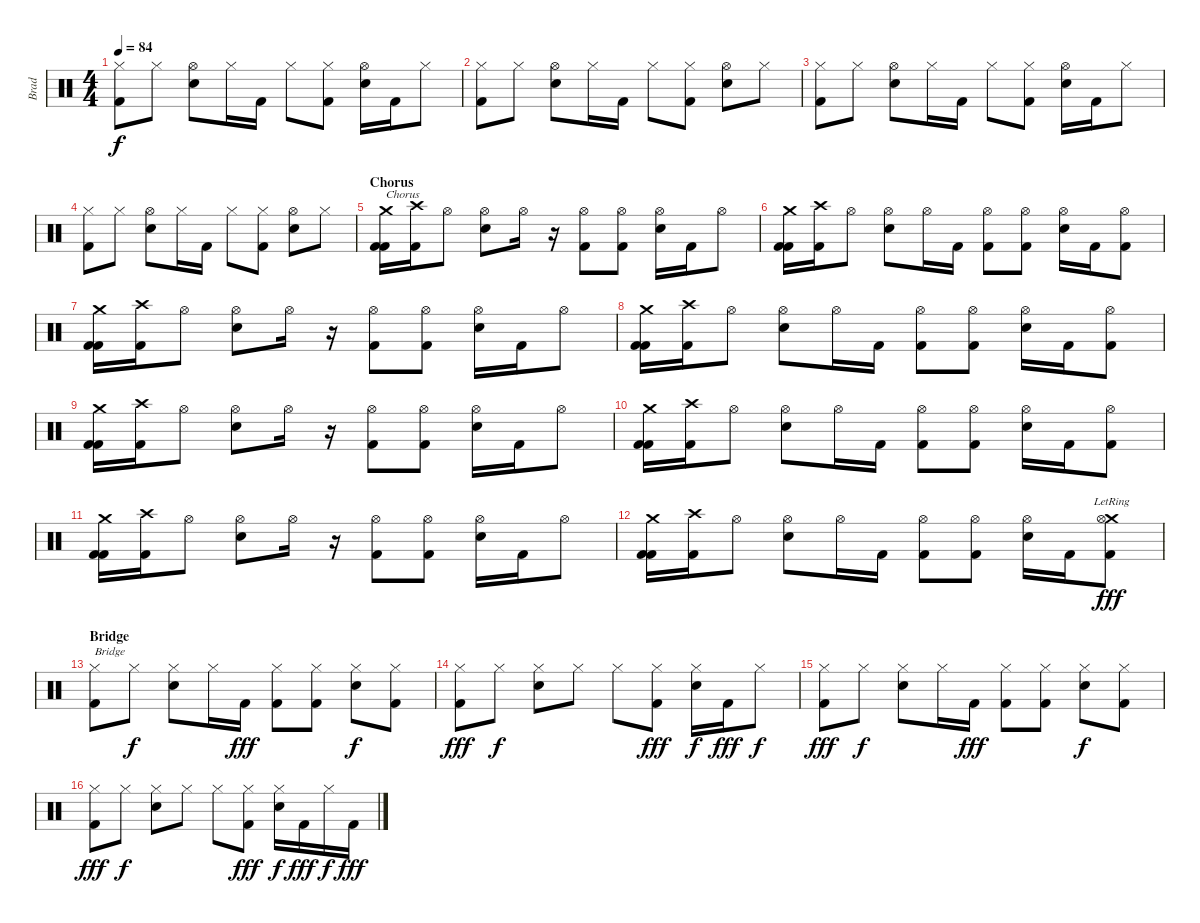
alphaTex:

\track ("Brad" "Brad") {instrument percussion}
\staff {score}
\articulation defaults
\ts (4 4)
\tempo 84
\clef neutral
\ks c
("Hi-Hat (closed)" "Kick (hit) 2").8{dy f} "Hi-Hat (closed)".8 ("Hi-Hat (open)" "Electric Snare (hit)").8 "Hi-Hat (closed)".16 "Kick (hit) 2".16 "Hi-Hat (closed)".8 ("Hi-Hat (closed)" "Kick (hit) 2").8 ("Hi-Hat (open)" "Electric Snare (hit)").16 "Kick (hit) 2".16 "Hi-Hat (closed)".8 |
("Hi-Hat (closed)" "Kick (hit) 2").8 "Hi-Hat (closed)".8 ("Hi-Hat (open)" "Electric Snare (hit)").8 "Hi-Hat (closed)".16 "Kick (hit) 2".16 "Hi-Hat (closed)".8 ("Hi-Hat (closed)" "Kick (hit) 2").8 ("Hi-Hat (open)" "Electric Snare (hit)").8 "Hi-Hat (closed)".8 |
("Hi-Hat (closed)" "Kick (hit) 2").8 "Hi-Hat (closed)".8 ("Hi-Hat (open)" "Electric Snare (hit)").8 "Hi-Hat (closed)".16 "Kick (hit) 2".16 "Hi-Hat (closed)".8 ("Hi-Hat (closed)" "Kick (hit) 2").8 ("Hi-Hat (open)" "Electric Snare (hit)").16 "Kick (hit) 2".16 "Hi-Hat (closed)".8 |
("Hi-Hat (closed)" "Kick (hit) 2").8 "Hi-Hat (closed)".8 ("Hi-Hat (open)" "Electric Snare (hit)").8 "Hi-Hat (closed)".16 "Kick (hit) 2".16 "Hi-Hat (closed)".8 ("Hi-Hat (closed)" "Kick (hit) 2").8 ("Hi-Hat (open)" "Electric Snare (hit)").8 "Hi-Hat (closed)".8 |
\section ("" "Chorus")
("Crash medium (hit)" "Kick (hit) 2" "Kick (hit) 2").16{txt "Chorus"} ("Crash high (hit)" "Kick (hit) 2").16 "Hi-Hat (open)".8 ("Hi-Hat (open)" "Electric Snare (hit)").8 "Hi-Hat (open)".16 r.16 ("Hi-Hat (open)" "Kick (hit) 2").8 ("Hi-Hat (open)" "Kick (hit) 2").8 ("Hi-Hat (open)" "Electric Snare (hit)").16 "Kick (hit) 2".16 "Hi-Hat (open)".8 |
("Crash medium (hit)" "Kick (hit) 2" "Kick (hit) 2").16 ("Crash high (hit)" "Kick (hit) 2").16 "Hi-Hat (open)".8 ("Hi-Hat (open)" "Electric Snare (hit)").8 "Hi-Hat (open)".16 "Kick (hit) 2".16 ("Hi-Hat (open)" "Kick (hit) 2").8 ("Hi-Hat (open)" "Kick (hit) 2").8 ("Hi-Hat (open)" "Electric Snare (hit)").16 "Kick (hit) 2".16 ("Hi-Hat (open)" "Kick (hit) 2").8 |
("Crash medium (hit)" "Kick (hit) 2" "Kick (hit) 2").16 ("Crash high (hit)" "Kick (hit) 2").16 "Hi-Hat (open)".8 ("Hi-Hat (open)" "Electric Snare (hit)").8 "Hi-Hat (open)".16 r.16 ("Hi-Hat (open)" "Kick (hit) 2").8 ("Hi-Hat (open)" "Kick (hit) 2").8 ("Hi-Hat (open)" "Electric Snare (hit)").16 "Kick (hit) 2".16 "Hi-Hat (open)".8 |
("Crash medium (hit)" "Kick (hit) 2" "Kick (hit) 2").16 ("Crash high (hit)" "Kick (hit) 2").16 "Hi-Hat (open)".8 ("Hi-Hat (open)" "Electric Snare (hit)").8 "Hi-Hat (open)".16 "Kick (hit) 2".16 ("Hi-Hat (open)" "Kick (hit) 2").8 ("Hi-Hat (open)" "Kick (hit) 2").8 ("Hi-Hat (open)" "Electric Snare (hit)").16 "Kick (hit) 2".16 ("Hi-Hat (open)" "Kick (hit) 2").8 |
("Crash medium (hit)" "Kick (hit) 2" "Kick (hit) 2").16 ("Crash high (hit)" "Kick (hit) 2").16 "Hi-Hat (open)".8 ("Hi-Hat (open)" "Electric Snare (hit)").8 "Hi-Hat (open)".16 r.16 ("Hi-Hat (open)" "Kick (hit) 2").8 ("Hi-Hat (open)" "Kick (hit) 2").8 ("Hi-Hat (open)" "Electric Snare (hit)").16 "Kick (hit) 2".16 "Hi-Hat (open)".8 |
("Crash medium (hit)" "Kick (hit) 2" "Kick (hit) 2").16 ("Crash high (hit)" "Kick (hit) 2").16 "Hi-Hat (open)".8 ("Hi-Hat (open)" "Electric Snare (hit)").8 "Hi-Hat (open)".16 "Kick (hit) 2".16 ("Hi-Hat (open)" "Kick (hit) 2").8 ("Hi-Hat (open)" "Kick (hit) 2").8 ("Hi-Hat (open)" "Electric Snare (hit)").16 "Kick (hit) 2".16 ("Hi-Hat (open)" "Kick (hit) 2").8 |
("Crash medium (hit)" "Kick (hit) 2" "Kick (hit) 2").16 ("Crash high (hit)" "Kick (hit) 2").16 "Hi-Hat (open)".8 ("Hi-Hat (open)" "Electric Snare (hit)").8 "Hi-Hat (open)".16 r.16 ("Hi-Hat (open)" "Kick (hit) 2").8 ("Hi-Hat (open)" "Kick (hit) 2").8 ("Hi-Hat (open)" "Electric Snare (hit)").16 "Kick (hit) 2".16 "Hi-Hat (open)".8 |
("Crash medium (hit)" "Kick (hit) 2" "Kick (hit) 2").16 ("Crash high (hit)" "Kick (hit) 2").16 "Hi-Hat (open)".8 ("Hi-Hat (open)" "Electric Snare (hit)").8 "Hi-Hat (open)".16 "Kick (hit) 2".16 ("Hi-Hat (open)" "Kick (hit) 2").8 ("Hi-Hat (open)" "Kick (hit) 2").8 ("Hi-Hat (open)" "Electric Snare (hit)").16 "Kick (hit) 2".16 ("Crash medium (hit)"{lr} "Hi-Hat (open)" "Kick (hit) 2").8{dy fff} |
\section ("" "Bridge")
("Hi-Hat (closed)" "Kick (hit) 2").8{txt "Bridge"} "Hi-Hat (closed)".8{dy f} ("Hi-Hat (closed)" "Electric Snare (hit)").8 "Hi-Hat (closed)".16 "Kick (hit) 2".16{dy fff} ("Hi-Hat (closed)" "Kick (hit) 2").8 ("Hi-Hat (closed)" "Kick (hit) 2").8 ("Hi-Hat (closed)" "Electric Snare (hit)").8{dy f} ("Hi-Hat (closed)" "Kick (hit) 2").8 |
("Hi-Hat (closed)" "Kick (hit) 2").8{dy fff} "Hi-Hat (closed)".8{dy f} ("Hi-Hat (closed)" "Electric Snare (hit)").8 "Hi-Hat (closed)".8 "Hi-Hat (closed)".8 ("Hi-Hat (closed)" "Kick (hit) 2").8{dy fff} ("Hi-Hat (closed)" "Electric Snare (hit)").16{dy f} "Kick (hit) 2".16{dy fff} "Hi-Hat (closed)".8{dy f} |
("Hi-Hat (closed)" "Kick (hit) 2").8{dy fff} "Hi-Hat (closed)".8{dy f} ("Hi-Hat (closed)" "Electric Snare (hit)").8 "Hi-Hat (closed)".16 "Kick (hit) 2".16{dy fff} ("Hi-Hat (closed)" "Kick (hit) 2").8 ("Hi-Hat (closed)" "Kick (hit) 2").8 ("Hi-Hat (closed)" "Electric Snare (hit)").8{dy f} ("Hi-Hat (closed)" "Kick (hit) 2").8 |
("Hi-Hat (closed)" "Kick (hit) 2").8{dy fff} "Hi-Hat (closed)".8{dy f} ("Hi-Hat (closed)" "Electric Snare (hit)").8 "Hi-Hat (closed)".8 "Hi-Hat (closed)".8 ("Hi-Hat (closed)" "Kick (hit) 2").8{dy fff} ("Hi-Hat (closed)" "Electric Snare (hit)").16{dy f} "Kick (hit) 2".16{dy fff} "Hi-Hat (closed)".16{dy f} "Kick (hit) 2".16{dy fff}
